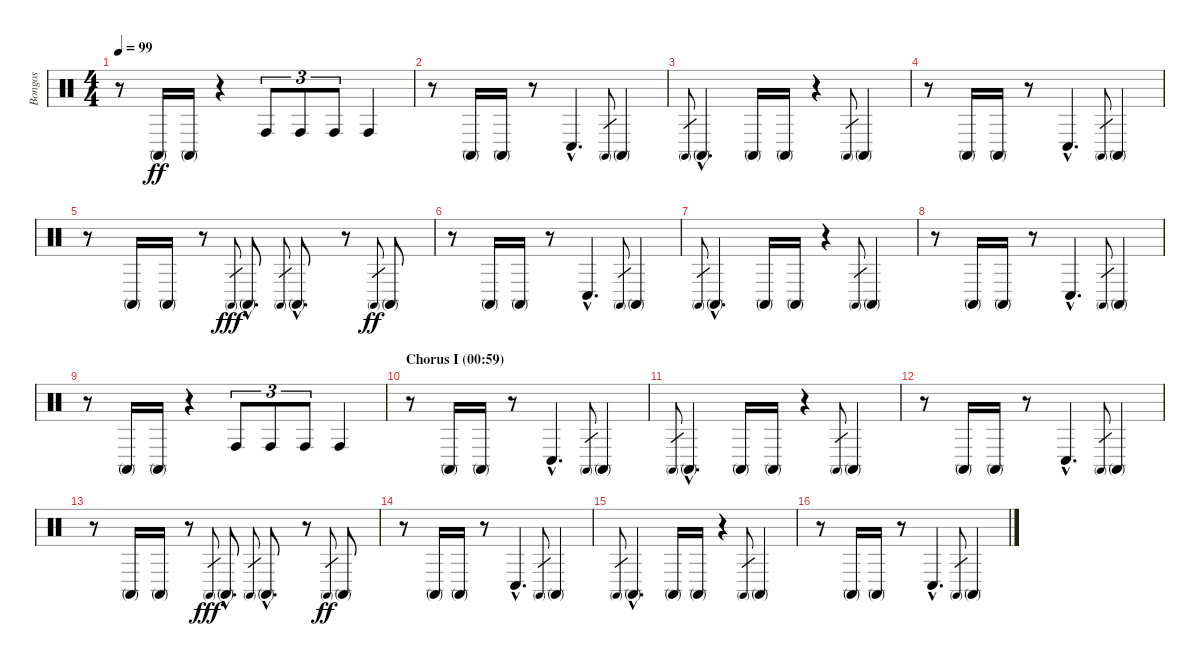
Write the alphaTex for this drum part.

\track ("Bongos" "Bongos") {instrument percussion}
\staff {score}
\articulation defaults
\ts (4 4)
\tempo 99
\clef neutral
\ks c
r.8{dy ff} "Conga high (mute)".16 "Conga high (mute)".16 r.4 "Conga high (hit)".8{tu (3 2)} "Conga high (hit)".8{tu (3 2)} "Conga high (hit)".8{tu (3 2)} "Conga high (hit)".4 |
r.8 "Conga high (mute)".16 "Conga high (mute)".16 r.8 "Conga low (hit)"{hac}.4{d} "Conga high (mute)".8{gr} "Conga high (mute)".4 |
"Conga high (mute)".8{gr} "Conga high (mute)"{hac}.4{d} "Conga high (mute)".16 "Conga high (mute)".16 r.4 "Conga high (mute)".8{gr} "Conga high (mute)".4 |
r.8 "Conga high (mute)".16 "Conga high (mute)".16 r.8 "Conga low (hit)"{hac}.4{d} "Conga high (mute)".8{gr} "Conga high (mute)".4 |
r.8 "Conga high (mute)".16 "Conga high (mute)".16 r.8 "Conga high (mute)".8{gr dy fff} "Conga high (mute)"{hac}.8{d} "Conga high (mute)".8{gr} "Conga high (mute)"{hac}.8{d} r.8 "Conga high (mute)".8{gr dy ff} "Conga high (mute)".8 |
r.8 "Conga high (mute)".16 "Conga high (mute)".16 r.8 "Conga low (hit)"{hac}.4{d} "Conga high (mute)".8{gr} "Conga high (mute)".4 |
"Conga high (mute)".8{gr} "Conga high (mute)"{hac}.4{d} "Conga high (mute)".16 "Conga high (mute)".16 r.4 "Conga high (mute)".8{gr} "Conga high (mute)".4 |
r.8 "Conga high (mute)".16 "Conga high (mute)".16 r.8 "Conga low (hit)"{hac}.4{d} "Conga high (mute)".8{gr} "Conga high (mute)".4 |
r.8 "Conga high (mute)".16 "Conga high (mute)".16 r.4 "Conga high (hit)".8{tu (3 2)} "Conga high (hit)".8{tu (3 2)} "Conga high (hit)".8{tu (3 2)} "Conga high (hit)".4 |
\section ("" "Chorus I (00:59)")
r.8 "Conga high (mute)".16 "Conga high (mute)".16 r.8 "Conga low (hit)"{hac}.4{d} "Conga high (mute)".8{gr} "Conga high (mute)".4 |
"Conga high (mute)".8{gr} "Conga high (mute)"{hac}.4{d} "Conga high (mute)".16 "Conga high (mute)".16 r.4 "Conga high (mute)".8{gr} "Conga high (mute)".4 |
r.8 "Conga high (mute)".16 "Conga high (mute)".16 r.8 "Conga low (hit)"{hac}.4{d} "Conga high (mute)".8{gr} "Conga high (mute)".4 |
r.8 "Conga high (mute)".16 "Conga high (mute)".16 r.8 "Conga high (mute)".8{gr dy fff} "Conga high (mute)"{hac}.8{d} "Conga high (mute)".8{gr} "Conga high (mute)"{hac}.8{d} r.8 "Conga high (mute)".8{gr dy ff} "Conga high (mute)".8 |
r.8 "Conga high (mute)".16 "Conga high (mute)".16 r.8 "Conga low (hit)"{hac}.4{d} "Conga high (mute)".8{gr} "Conga high (mute)".4 |
"Conga high (mute)".8{gr} "Conga high (mute)"{hac}.4{d} "Conga high (mute)".16 "Conga high (mute)".16 r.4 "Conga high (mute)".8{gr} "Conga high (mute)".4 |
r.8 "Conga high (mute)".16 "Conga high (mute)".16 r.8 "Conga low (hit)"{hac}.4{d} "Conga high (mute)".8{gr} "Conga high (mute)".4
